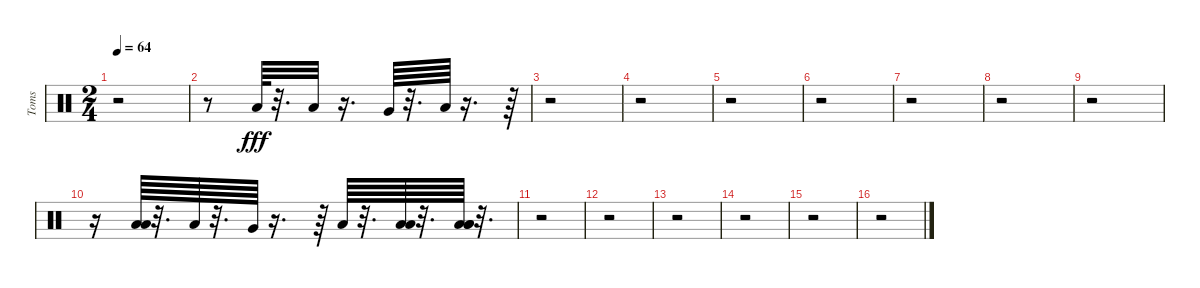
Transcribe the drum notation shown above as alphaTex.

\track ("Toms" "Toms") {instrument percussion}
\staff {score}
\articulation defaults
\ts (2 4)
\tempo 64
\clef neutral
\ks c
r.2{dy fff} |
r.8 "Low Tom (hit)".64 r.32{d} "Low Tom (hit)".32 r.16{d} "Very Low Tom (hit)".64 r.32{d} "Low Floor Tom (hit)".64 r.16{d} r.64 |
r.2 |
r.2 |
r.2 |
r.2 |
r.2 |
r.2 |
r.2 |
r.16 ("Low Tom (hit)" "Low Tom (hit)").64 r.32{d} "Low Tom (hit)".64 r.32{d} "Very Low Tom (hit)".64 r.16{d} r.64 "Low Floor Tom (hit)".64 r.32{d} ("Low Floor Tom (hit)" "Low Floor Tom (hit)").64 r.32{d} ("Low Floor Tom (hit)" "Low Floor Tom (hit)" "Low Floor Tom (hit)").64 r.32{d} |
r.2 |
r.2 |
r.2 |
r.2 |
r.2 |
r.2
